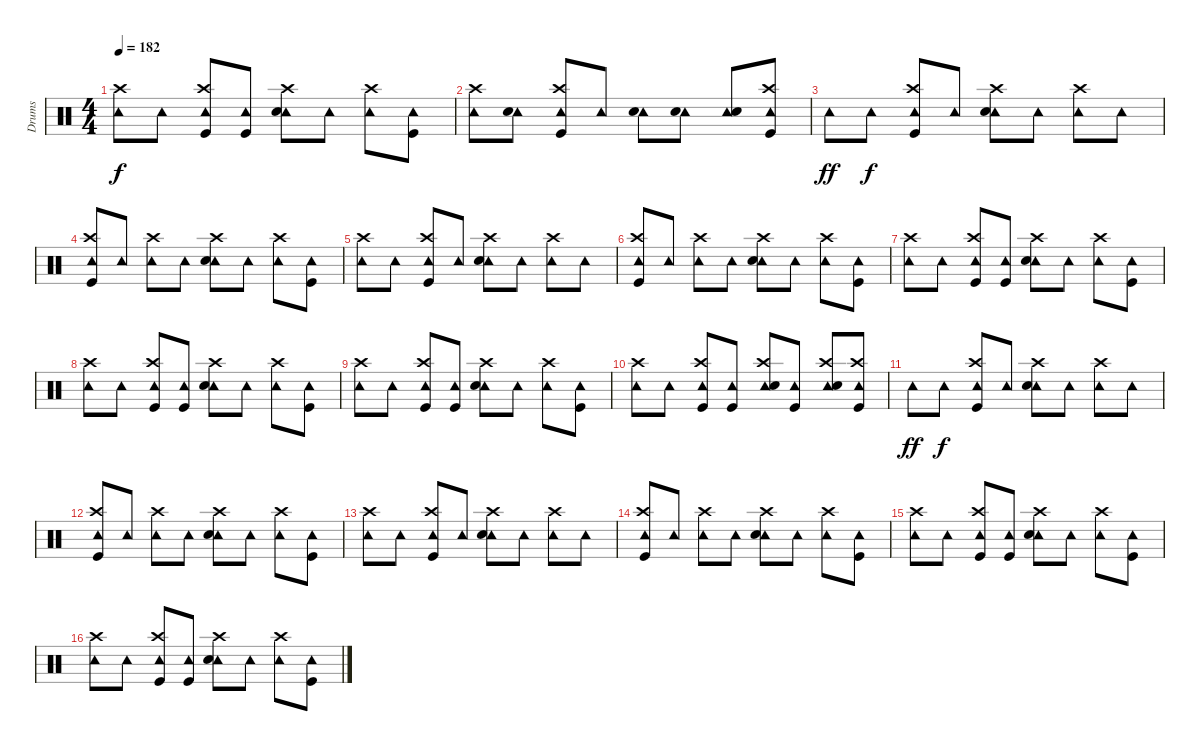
\track ("Drums" "Drums") {instrument percussion}
\staff {score}
\articulation defaults
\ts (4 4)
\tempo 182
\clef neutral
\ks c
("Tambourine (hit)" "Crash high (hit)").8{dy f} "Tambourine (hit)".8 ("Tambourine (hit)" "Crash high (hit)" "Kick (hit)").8 ("Tambourine (hit)" "Kick (hit)").8 ("Tambourine (hit)" "Crash high (hit)" "Electric Snare (hit)").8 "Tambourine (hit)".8 ("Tambourine (hit)" "Crash high (hit)").8 ("Tambourine (hit)" "Kick (hit)").8 |
("Tambourine (hit)" "Crash high (hit)").8 ("Tambourine (hit)" "Electric Snare (hit)").8 ("Tambourine (hit)" "Crash high (hit)" "Kick (hit)").8 "Tambourine (hit)".8 ("Tambourine (hit)" "Electric Snare (hit)").8 ("Tambourine (hit)" "Electric Snare (hit)").8 ("Tambourine (hit)" "Electric Snare (hit)").8 ("Tambourine (hit)" "Crash high (hit)" "Kick (hit)").8 |
"Tambourine (hit)".8{dy ff} "Tambourine (hit)".8{dy f} ("Tambourine (hit)" "Crash high (hit)" "Kick (hit)").8 "Tambourine (hit)".8 ("Tambourine (hit)" "Crash high (hit)" "Electric Snare (hit)").8 "Tambourine (hit)".8 ("Tambourine (hit)" "Crash high (hit)").8 "Tambourine (hit)".8 |
("Tambourine (hit)" "Kick (hit)" "Crash high (hit)").8 "Tambourine (hit)".8 ("Tambourine (hit)" "Crash high (hit)").8 "Tambourine (hit)".8 ("Tambourine (hit)" "Crash high (hit)" "Electric Snare (hit)").8 "Tambourine (hit)".8 ("Tambourine (hit)" "Crash high (hit)").8 ("Tambourine (hit)" "Kick (hit)").8 |
("Tambourine (hit)" "Crash high (hit)").8 "Tambourine (hit)".8 ("Tambourine (hit)" "Crash high (hit)" "Kick (hit)").8 "Tambourine (hit)".8 ("Tambourine (hit)" "Crash high (hit)" "Electric Snare (hit)").8 "Tambourine (hit)".8 ("Tambourine (hit)" "Crash high (hit)").8 "Tambourine (hit)".8 |
("Tambourine (hit)" "Kick (hit)" "Crash high (hit)").8 "Tambourine (hit)".8 ("Tambourine (hit)" "Crash high (hit)").8 "Tambourine (hit)".8 ("Tambourine (hit)" "Crash high (hit)" "Electric Snare (hit)").8 "Tambourine (hit)".8 ("Tambourine (hit)" "Crash high (hit)").8 ("Tambourine (hit)" "Kick (hit)").8 |
("Tambourine (hit)" "Crash high (hit)").8 "Tambourine (hit)".8 ("Tambourine (hit)" "Crash high (hit)" "Kick (hit)").8 ("Tambourine (hit)" "Kick (hit)").8 ("Tambourine (hit)" "Crash high (hit)" "Electric Snare (hit)").8 "Tambourine (hit)".8 ("Tambourine (hit)" "Crash high (hit)").8 ("Tambourine (hit)" "Kick (hit)").8 |
("Tambourine (hit)" "Crash high (hit)").8 "Tambourine (hit)".8 ("Tambourine (hit)" "Crash high (hit)" "Kick (hit)").8 ("Tambourine (hit)" "Kick (hit)").8 ("Tambourine (hit)" "Crash high (hit)" "Electric Snare (hit)").8 "Tambourine (hit)".8 ("Tambourine (hit)" "Crash high (hit)").8 ("Tambourine (hit)" "Kick (hit)").8 |
("Tambourine (hit)" "Crash high (hit)").8 "Tambourine (hit)".8 ("Tambourine (hit)" "Crash high (hit)" "Kick (hit)").8 ("Tambourine (hit)" "Kick (hit)").8 ("Tambourine (hit)" "Crash high (hit)" "Electric Snare (hit)").8 "Tambourine (hit)".8 ("Tambourine (hit)" "Crash high (hit)").8 ("Tambourine (hit)" "Kick (hit)").8 |
("Tambourine (hit)" "Crash high (hit)").8 "Tambourine (hit)".8 ("Tambourine (hit)" "Crash high (hit)" "Kick (hit)").8 ("Tambourine (hit)" "Kick (hit)").8 ("Tambourine (hit)" "Crash high (hit)" "Electric Snare (hit)").8 ("Tambourine (hit)" "Kick (hit)").8 ("Tambourine (hit)" "Electric Snare (hit)" "Crash high (hit)").8 ("Tambourine (hit)" "Crash high (hit)" "Kick (hit)").8 |
"Tambourine (hit)".8{dy ff} "Tambourine (hit)".8{dy f} ("Tambourine (hit)" "Crash high (hit)" "Kick (hit)").8 "Tambourine (hit)".8 ("Tambourine (hit)" "Crash high (hit)" "Electric Snare (hit)").8 "Tambourine (hit)".8 ("Tambourine (hit)" "Crash high (hit)").8 "Tambourine (hit)".8 |
("Tambourine (hit)" "Kick (hit)" "Crash high (hit)").8 "Tambourine (hit)".8 ("Tambourine (hit)" "Crash high (hit)").8 "Tambourine (hit)".8 ("Tambourine (hit)" "Crash high (hit)" "Electric Snare (hit)").8 "Tambourine (hit)".8 ("Tambourine (hit)" "Crash high (hit)").8 ("Tambourine (hit)" "Kick (hit)").8 |
("Tambourine (hit)" "Crash high (hit)").8 "Tambourine (hit)".8 ("Tambourine (hit)" "Crash high (hit)" "Kick (hit)").8 "Tambourine (hit)".8 ("Tambourine (hit)" "Crash high (hit)" "Electric Snare (hit)").8 "Tambourine (hit)".8 ("Tambourine (hit)" "Crash high (hit)").8 "Tambourine (hit)".8 |
("Tambourine (hit)" "Kick (hit)" "Crash high (hit)").8 "Tambourine (hit)".8 ("Tambourine (hit)" "Crash high (hit)").8 "Tambourine (hit)".8 ("Tambourine (hit)" "Crash high (hit)" "Electric Snare (hit)").8 "Tambourine (hit)".8 ("Tambourine (hit)" "Crash high (hit)").8 ("Tambourine (hit)" "Kick (hit)").8 |
("Tambourine (hit)" "Crash high (hit)").8 "Tambourine (hit)".8 ("Tambourine (hit)" "Crash high (hit)" "Kick (hit)").8 ("Tambourine (hit)" "Kick (hit)").8 ("Tambourine (hit)" "Crash high (hit)" "Electric Snare (hit)").8 "Tambourine (hit)".8 ("Tambourine (hit)" "Crash high (hit)").8 ("Tambourine (hit)" "Kick (hit)").8 |
("Tambourine (hit)" "Crash high (hit)").8 "Tambourine (hit)".8 ("Tambourine (hit)" "Crash high (hit)" "Kick (hit)").8 ("Tambourine (hit)" "Kick (hit)").8 ("Tambourine (hit)" "Crash high (hit)" "Electric Snare (hit)").8 "Tambourine (hit)".8 ("Tambourine (hit)" "Crash high (hit)").8 ("Tambourine (hit)" "Kick (hit)").8
